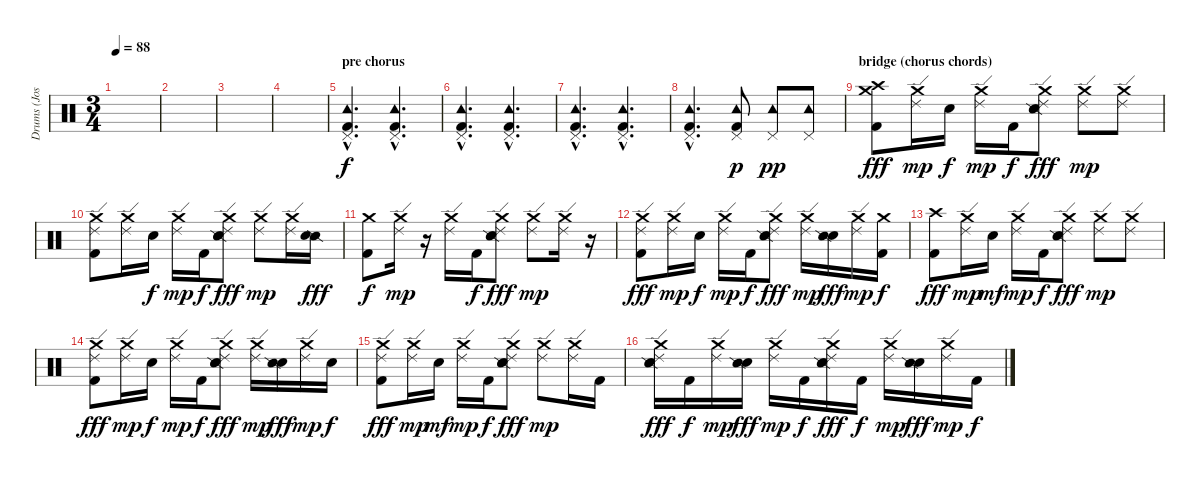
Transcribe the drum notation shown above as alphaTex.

\track ("Drums (Jose)" "Drums (Jos") {instrument percussion}
\staff {score}
\articulation defaults
\ts (3 4)
\tempo 88
\clef neutral
\ks c
|
|
|
|
\section ("" "pre chorus")
("Pedal Hi-Hat (hit)"{hac} "Tambourine (hit)"{hac} "Kick (hit) 2"{hac}).4{d} ("Pedal Hi-Hat (hit)"{hac} "Tambourine (hit)"{hac} "Kick (hit) 2"{hac}).4{d} |
("Pedal Hi-Hat (hit)"{hac} "Tambourine (hit)"{hac} "Kick (hit) 2"{hac}).4{d} ("Pedal Hi-Hat (hit)"{hac} "Tambourine (hit)"{hac} "Kick (hit) 2"{hac}).4{d} |
("Pedal Hi-Hat (hit)"{hac} "Tambourine (hit)"{hac} "Kick (hit) 2"{hac}).4{d} ("Pedal Hi-Hat (hit)"{hac} "Tambourine (hit)"{hac} "Kick (hit) 2"{hac}).4{d} |
("Pedal Hi-Hat (hit)"{hac} "Tambourine (hit)"{hac} "Kick (hit) 2"{hac}).4{d} ("Pedal Hi-Hat (hit)" "Tambourine (hit)" "Kick (hit) 2").8{dy p} ("Pedal Hi-Hat (hit)" "Tambourine (hit)").8{dy pp} ("Pedal Hi-Hat (hit)" "Tambourine (hit)").8 |
\section ("" "bridge (chorus chords)")
("Crash medium (hit)" "Crash high (hit)" "Kick (hit) 2").8{dy fff} ("Ride (edge) 2" "Crash medium (hit)").16{dy mp} "Electric Snare (hit)".16{dy f} ("Ride (edge) 2" "Crash medium (hit)").16{dy mp} "Kick (hit) 2".16{dy f} ("Crash medium (hit)" "Ride (edge) 2" "Electric Snare (hit)" "Snare (side stick) 2").8{dy fff} ("Crash medium (hit)" "Ride (edge) 2").8{dy mp} ("Crash medium (hit)" "Ride (edge) 2").8 |
("Crash medium (hit)" "Ride (edge) 2" "Kick (hit) 2").8 ("Ride (edge) 2" "Crash medium (hit)").16 "Electric Snare (hit)".16{dy f} ("Ride (edge) 2" "Crash medium (hit)").16{dy mp} "Kick (hit) 2".16{dy f} ("Crash medium (hit)" "Ride (edge) 2" "Electric Snare (hit)" "Snare (side stick) 2").8{dy fff} ("Crash medium (hit)" "Ride (edge) 2").8{dy mp} ("Crash medium (hit)" "Ride (edge) 2").16 ("Snare (side stick) 2" "Electric Snare (hit)").16{dy fff} |
("Crash medium (hit)" "Kick (hit) 2").8{dy f} ("Ride (edge) 2" "Crash medium (hit)").16{dy mp} r.16 ("Ride (edge) 2" "Crash medium (hit)").16 "Kick (hit) 2".16{dy f} ("Crash medium (hit)" "Ride (edge) 2" "Electric Snare (hit)" "Snare (side stick) 2").8{dy fff} ("Crash medium (hit)" "Ride (edge) 2").8{dy mp} ("Crash medium (hit)" "Ride (edge) 2").16 r.16 |
("Crash medium (hit)" "Ride (edge) 2" "Kick (hit) 2").8{dy fff} ("Ride (edge) 2" "Crash medium (hit)").16{dy mp} "Electric Snare (hit)".16{dy f} ("Ride (edge) 2" "Crash medium (hit)").16{dy mp} "Kick (hit) 2".16{dy f} ("Crash medium (hit)" "Ride (edge) 2" "Electric Snare (hit)" "Snare (side stick) 2").8{dy fff} ("Crash medium (hit)" "Ride (edge) 2").16{dy mp} ("Electric Snare (hit)" "Snare (side stick) 2").16{dy fff} ("Crash medium (hit)" "Ride (edge) 2").16{dy mp} ("Crash medium (hit)" "Kick (hit) 2").16{dy f} |
("Crash high (hit)" "Kick (hit) 2").8{dy fff} ("Ride (edge) 2" "Crash medium (hit)").16{dy mp} "Electric Snare (hit)".16{dy mf} ("Ride (edge) 2" "Crash medium (hit)").16{dy mp} "Kick (hit) 2".16{dy f} ("Crash medium (hit)" "Ride (edge) 2" "Electric Snare (hit)" "Snare (side stick) 2").8{dy fff} ("Crash medium (hit)" "Ride (edge) 2").8{dy mp} ("Crash medium (hit)" "Ride (edge) 2").8 |
("Crash medium (hit)" "Ride (edge) 2" "Kick (hit) 2").8{dy fff} ("Ride (edge) 2" "Crash medium (hit)").16{dy mp} "Electric Snare (hit)".16{dy f} ("Ride (edge) 2" "Crash medium (hit)").16{dy mp} "Kick (hit) 2".16{dy f} ("Crash medium (hit)" "Ride (edge) 2" "Electric Snare (hit)" "Snare (side stick) 2").8{dy fff} ("Crash medium (hit)" "Ride (edge) 2").16{dy mp} ("Electric Snare (hit)" "Snare (side stick) 2").16{dy fff} ("Crash medium (hit)" "Ride (edge) 2").16{dy mp} "Electric Snare (hit)".16{dy f} |
("Crash medium (hit)" "Ride (edge) 2" "Kick (hit) 2").8{dy fff} ("Ride (edge) 2" "Crash medium (hit)").16{dy mp} "Electric Snare (hit)".16{dy mf} ("Ride (edge) 2" "Crash medium (hit)").16{dy mp} "Kick (hit) 2".16{dy f} ("Crash medium (hit)" "Ride (edge) 2" "Electric Snare (hit)" "Snare (side stick) 2").8{dy fff} ("Crash medium (hit)" "Ride (edge) 2").8{dy mp} ("Crash medium (hit)" "Ride (edge) 2").16 "Kick (hit) 2".16 |
("Crash medium (hit)" "Ride (edge) 2" "Electric Snare (hit)" "Snare (side stick) 2").16{dy fff} "Kick (hit) 2".16{dy f} ("Crash medium (hit)" "Ride (edge) 2").16{dy mp} ("Electric Snare (hit)" "Snare (side stick) 2").16{dy fff} ("Crash medium (hit)" "Ride (edge) 2").16{dy mp} "Kick (hit) 2".16{dy f} ("Crash medium (hit)" "Ride (edge) 2" "Electric Snare (hit)" "Snare (side stick) 2").16{dy fff} "Kick (hit) 2".16{dy f} ("Crash medium (hit)" "Ride (edge) 2").16{dy mp} ("Electric Snare (hit)" "Snare (side stick) 2").16{dy fff} ("Crash medium (hit)" "Ride (edge) 2").16{dy mp} "Kick (hit) 2".16{dy f}
